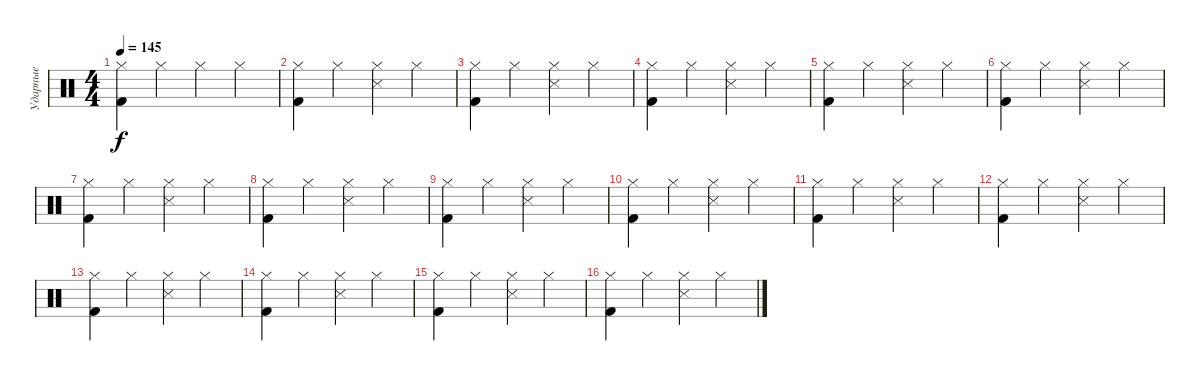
\track ("Ударные" "Ударные") {instrument percussion}
\staff {score}
\articulation defaults
\ts (4 4)
\tempo 145
\clef neutral
\ks c
("Hi-Hat (closed)" "Kick (hit) 2").4{dy f} "Hi-Hat (closed)".4 "Hi-Hat (closed)".4 "Hi-Hat (closed)".4 |
("Kick (hit) 2" "Hi-Hat (closed)").4 "Hi-Hat (closed)".4 ("Snare (side stick) 3" "Hi-Hat (closed)").4 "Hi-Hat (closed)".4 |
("Hi-Hat (closed)" "Kick (hit) 2").4 "Hi-Hat (closed)".4 ("Snare (side stick) 3" "Hi-Hat (closed)").4 "Hi-Hat (closed)".4 |
("Hi-Hat (closed)" "Kick (hit) 2").4 "Hi-Hat (closed)".4 ("Snare (side stick) 3" "Hi-Hat (closed)").4 "Hi-Hat (closed)".4 |
("Hi-Hat (closed)" "Kick (hit) 2").4 "Hi-Hat (closed)".4 ("Hi-Hat (closed)" "Snare (side stick) 3").4 "Hi-Hat (closed)".4 |
("Kick (hit) 2" "Hi-Hat (closed)").4 "Hi-Hat (closed)".4 ("Snare (side stick) 3" "Hi-Hat (closed)").4 "Hi-Hat (closed)".4 |
("Kick (hit) 2" "Hi-Hat (closed)").4 "Hi-Hat (closed)".4 ("Snare (side stick) 3" "Hi-Hat (closed)").4 "Hi-Hat (closed)".4 |
("Kick (hit) 2" "Hi-Hat (closed)").4 "Hi-Hat (closed)".4 ("Snare (side stick) 3" "Hi-Hat (closed)").4 "Hi-Hat (closed)".4 |
("Hi-Hat (closed)" "Kick (hit) 2").4 "Hi-Hat (closed)".4 ("Hi-Hat (closed)" "Snare (side stick) 3").4 "Hi-Hat (closed)".4 |
("Kick (hit) 2" "Hi-Hat (closed)").4 "Hi-Hat (closed)".4 ("Snare (side stick) 3" "Hi-Hat (closed)").4 "Hi-Hat (closed)".4 |
("Kick (hit) 2" "Hi-Hat (closed)").4 "Hi-Hat (closed)".4 ("Snare (side stick) 3" "Hi-Hat (closed)").4 "Hi-Hat (closed)".4 |
("Hi-Hat (closed)" "Kick (hit) 2").4 "Hi-Hat (closed)".4 ("Snare (side stick) 3" "Hi-Hat (closed)").4 "Hi-Hat (closed)".4 |
("Kick (hit) 2" "Hi-Hat (closed)").4 "Hi-Hat (closed)".4 ("Snare (side stick) 3" "Hi-Hat (closed)").4 "Hi-Hat (closed)".4 |
("Kick (hit) 2" "Hi-Hat (closed)").4 "Hi-Hat (closed)".4 ("Snare (side stick) 3" "Hi-Hat (closed)").4 "Hi-Hat (closed)".4 |
("Hi-Hat (closed)" "Kick (hit) 2").4 "Hi-Hat (closed)".4 ("Snare (side stick) 3" "Hi-Hat (closed)").4 "Hi-Hat (closed)".4 |
("Kick (hit) 2" "Hi-Hat (closed)").4 "Hi-Hat (closed)".4 ("Hi-Hat (closed)" "Snare (side stick) 3").4 "Hi-Hat (closed)".4
